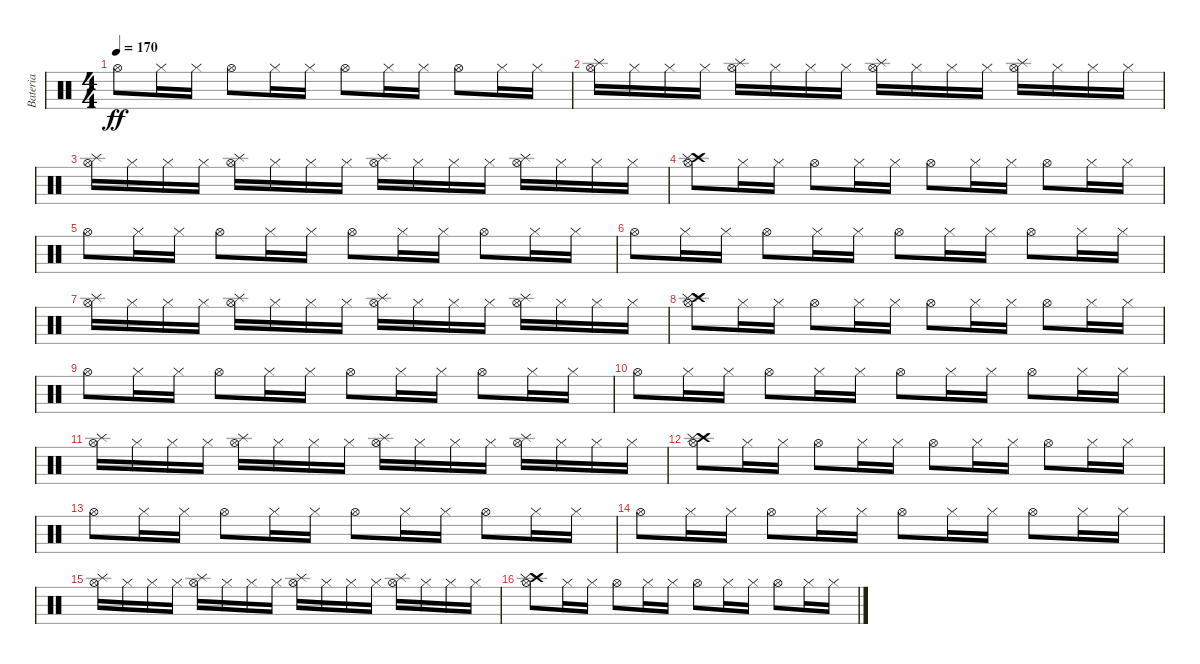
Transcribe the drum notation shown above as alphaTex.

\track ("Bateria" "Bateria") {instrument percussion}
\staff {score}
\articulation defaults
\ts (4 4)
\tempo 170
\clef neutral
\ks c "Hi-Hat (open)".8{dy ff} "Hi-Hat (closed)".16 "Hi-Hat (closed)".16 "Hi-Hat (open)".8 "Hi-Hat (closed)".16 "Hi-Hat (closed)".16 "Hi-Hat (open)".8 "Hi-Hat (closed)".16 "Hi-Hat (closed)".16 "Hi-Hat (open)".8 "Hi-Hat (closed)".16 "Hi-Hat (closed)".16
|
("Hi-Hat (open)" "Splash (hit)").16 "Hi-Hat (closed)".16 "Hi-Hat (closed)".16 "Hi-Hat (closed)".16 ("Hi-Hat (open)" "Splash (hit)").16 "Hi-Hat (closed)".16 "Hi-Hat (closed)".16 "Hi-Hat (closed)".16 ("Hi-Hat (open)" "Splash (hit)").16 "Hi-Hat (closed)".16 "Hi-Hat (closed)".16 "Hi-Hat (closed)".16 ("Hi-Hat (open)" "Splash (hit)").16 "Hi-Hat (closed)".16 "Hi-Hat (closed)".16 "Hi-Hat (closed)".16 |
("Hi-Hat (open)" "Splash (hit)").16 "Hi-Hat (closed)".16 "Hi-Hat (closed)".16 "Hi-Hat (closed)".16 ("Hi-Hat (open)" "Splash (hit)").16 "Hi-Hat (closed)".16 "Hi-Hat (closed)".16 "Hi-Hat (closed)".16 ("Hi-Hat (open)" "Splash (hit)").16 "Hi-Hat (closed)".16 "Hi-Hat (closed)".16 "Hi-Hat (closed)".16 ("Hi-Hat (open)" "Splash (hit)").16 "Hi-Hat (closed)".16 "Hi-Hat (closed)".16 "Hi-Hat (closed)".16 |
("Hi-Hat (open)" "Crash high (hit)" "Splash (hit)").8 "Hi-Hat (closed)".16 "Hi-Hat (closed)".16 "Hi-Hat (open)".8 "Hi-Hat (closed)".16 "Hi-Hat (closed)".16 "Hi-Hat (open)".8 "Hi-Hat (closed)".16 "Hi-Hat (closed)".16 "Hi-Hat (open)".8 "Hi-Hat (closed)".16 "Hi-Hat (closed)".16 |
"Hi-Hat (open)".8 "Hi-Hat (closed)".16 "Hi-Hat (closed)".16 "Hi-Hat (open)".8 "Hi-Hat (closed)".16 "Hi-Hat (closed)".16 "Hi-Hat (open)".8 "Hi-Hat (closed)".16 "Hi-Hat (closed)".16 "Hi-Hat (open)".8 "Hi-Hat (closed)".16 "Hi-Hat (closed)".16 |
"Hi-Hat (open)".8 "Hi-Hat (closed)".16 "Hi-Hat (closed)".16 "Hi-Hat (open)".8 "Hi-Hat (closed)".16 "Hi-Hat (closed)".16 "Hi-Hat (open)".8 "Hi-Hat (closed)".16 "Hi-Hat (closed)".16 "Hi-Hat (open)".8 "Hi-Hat (closed)".16 "Hi-Hat (closed)".16 |
("Hi-Hat (open)" "Splash (hit)").16 "Hi-Hat (closed)".16 "Hi-Hat (closed)".16 "Hi-Hat (closed)".16 ("Hi-Hat (open)" "Splash (hit)").16 "Hi-Hat (closed)".16 "Hi-Hat (closed)".16 "Hi-Hat (closed)".16 ("Hi-Hat (open)" "Splash (hit)").16 "Hi-Hat (closed)".16 "Hi-Hat (closed)".16 "Hi-Hat (closed)".16 ("Hi-Hat (open)" "Splash (hit)").16 "Hi-Hat (closed)".16 "Hi-Hat (closed)".16 "Hi-Hat (closed)".16 |
("Hi-Hat (open)" "Crash high (hit)" "Splash (hit)").8 "Hi-Hat (closed)".16 "Hi-Hat (closed)".16 "Hi-Hat (open)".8 "Hi-Hat (closed)".16 "Hi-Hat (closed)".16 "Hi-Hat (open)".8 "Hi-Hat (closed)".16 "Hi-Hat (closed)".16 "Hi-Hat (open)".8 "Hi-Hat (closed)".16 "Hi-Hat (closed)".16 |
"Hi-Hat (open)".8 "Hi-Hat (closed)".16 "Hi-Hat (closed)".16 "Hi-Hat (open)".8 "Hi-Hat (closed)".16 "Hi-Hat (closed)".16 "Hi-Hat (open)".8 "Hi-Hat (closed)".16 "Hi-Hat (closed)".16 "Hi-Hat (open)".8 "Hi-Hat (closed)".16 "Hi-Hat (closed)".16 |
"Hi-Hat (open)".8 "Hi-Hat (closed)".16 "Hi-Hat (closed)".16 "Hi-Hat (open)".8 "Hi-Hat (closed)".16 "Hi-Hat (closed)".16 "Hi-Hat (open)".8 "Hi-Hat (closed)".16 "Hi-Hat (closed)".16 "Hi-Hat (open)".8 "Hi-Hat (closed)".16 "Hi-Hat (closed)".16 |
("Hi-Hat (open)" "Splash (hit)").16 "Hi-Hat (closed)".16 "Hi-Hat (closed)".16 "Hi-Hat (closed)".16 ("Hi-Hat (open)" "Splash (hit)").16 "Hi-Hat (closed)".16 "Hi-Hat (closed)".16 "Hi-Hat (closed)".16 ("Hi-Hat (open)" "Splash (hit)").16 "Hi-Hat (closed)".16 "Hi-Hat (closed)".16 "Hi-Hat (closed)".16 ("Hi-Hat (open)" "Splash (hit)").16 "Hi-Hat (closed)".16 "Hi-Hat (closed)".16 "Hi-Hat (closed)".16 |
("Hi-Hat (open)" "Crash high (hit)" "Splash (hit)").8 "Hi-Hat (closed)".16 "Hi-Hat (closed)".16 "Hi-Hat (open)".8 "Hi-Hat (closed)".16 "Hi-Hat (closed)".16 "Hi-Hat (open)".8 "Hi-Hat (closed)".16 "Hi-Hat (closed)".16 "Hi-Hat (open)".8 "Hi-Hat (closed)".16 "Hi-Hat (closed)".16 |
"Hi-Hat (open)".8 "Hi-Hat (closed)".16 "Hi-Hat (closed)".16 "Hi-Hat (open)".8 "Hi-Hat (closed)".16 "Hi-Hat (closed)".16 "Hi-Hat (open)".8 "Hi-Hat (closed)".16 "Hi-Hat (closed)".16 "Hi-Hat (open)".8 "Hi-Hat (closed)".16 "Hi-Hat (closed)".16 |
"Hi-Hat (open)".8 "Hi-Hat (closed)".16 "Hi-Hat (closed)".16 "Hi-Hat (open)".8 "Hi-Hat (closed)".16 "Hi-Hat (closed)".16 "Hi-Hat (open)".8 "Hi-Hat (closed)".16 "Hi-Hat (closed)".16 "Hi-Hat (open)".8 "Hi-Hat (closed)".16 "Hi-Hat (closed)".16 |
("Hi-Hat (open)" "Splash (hit)").16 "Hi-Hat (closed)".16 "Hi-Hat (closed)".16 "Hi-Hat (closed)".16 ("Hi-Hat (open)" "Splash (hit)").16 "Hi-Hat (closed)".16 "Hi-Hat (closed)".16 "Hi-Hat (closed)".16 ("Hi-Hat (open)" "Splash (hit)").16 "Hi-Hat (closed)".16 "Hi-Hat (closed)".16 "Hi-Hat (closed)".16 ("Hi-Hat (open)" "Splash (hit)").16 "Hi-Hat (closed)".16 "Hi-Hat (closed)".16 "Hi-Hat (closed)".16 |
("Hi-Hat (open)" "Crash high (hit)" "Splash (hit)").8 "Hi-Hat (closed)".16 "Hi-Hat (closed)".16 "Hi-Hat (open)".8 "Hi-Hat (closed)".16 "Hi-Hat (closed)".16 "Hi-Hat (open)".8 "Hi-Hat (closed)".16 "Hi-Hat (closed)".16 "Hi-Hat (open)".8 "Hi-Hat (closed)".16 "Hi-Hat (closed)".16
